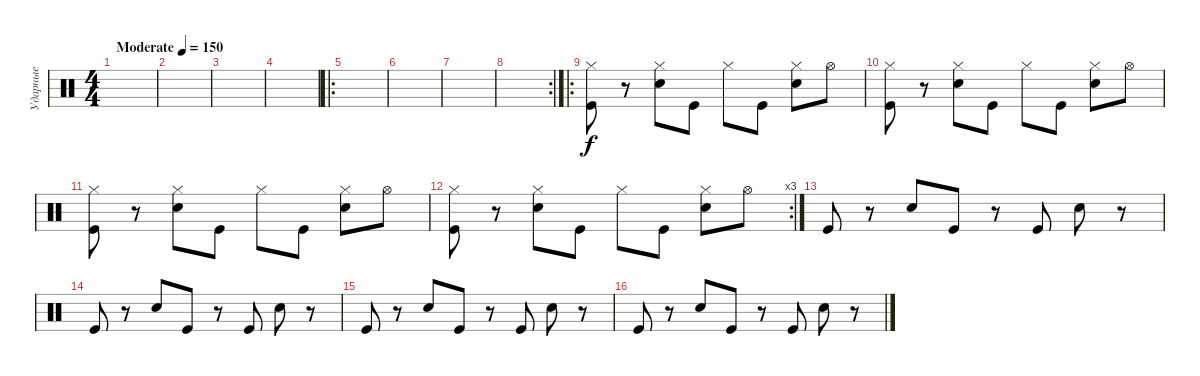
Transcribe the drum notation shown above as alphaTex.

\track ("Ударные" "Ударные") {instrument percussion}
\staff {score}
\articulation defaults
\ts (4 4)
\tempo (150 "Moderate")
\clef neutral
\ks c
|
|
|
|
\ro
|
|
|
\rc 2
|
\ro
("Kick (hit)" "Hi-Hat (closed)").8 r.8 ("Hand Clap (hit)" "Hi-Hat (closed)").8 "Kick (hit)".8 "Hi-Hat (closed)".8 "Kick (hit)".8 ("Hand Clap (hit)" "Hi-Hat (closed)").8 "Hi-Hat (open)".8 |
("Kick (hit)" "Hi-Hat (closed)").8 r.8 ("Hand Clap (hit)" "Hi-Hat (closed)").8 "Kick (hit)".8 "Hi-Hat (closed)".8 "Kick (hit)".8 ("Hand Clap (hit)" "Hi-Hat (closed)").8 "Hi-Hat (open)".8 |
("Kick (hit)" "Hi-Hat (closed)").8 r.8 ("Hand Clap (hit)" "Hi-Hat (closed)").8 "Kick (hit)".8 "Hi-Hat (closed)".8 "Kick (hit)".8 ("Hand Clap (hit)" "Hi-Hat (closed)").8 "Hi-Hat (open)".8 |
\rc 3
("Kick (hit)" "Hi-Hat (closed)").8 r.8 ("Hand Clap (hit)" "Hi-Hat (closed)").8 "Kick (hit)".8 "Hi-Hat (closed)".8 "Kick (hit)".8 ("Hand Clap (hit)" "Hi-Hat (closed)").8 "Hi-Hat (open)".8 |
"Kick (hit)".8 r.8 "Hand Clap (hit)".8 "Kick (hit)".8 r.8 "Kick (hit)".8 "Hand Clap (hit)".8 r.8 |
"Kick (hit)".8 r.8 "Hand Clap (hit)".8 "Kick (hit)".8 r.8 "Kick (hit)".8 "Hand Clap (hit)".8 r.8 |
"Kick (hit)".8 r.8 "Hand Clap (hit)".8 "Kick (hit)".8 r.8 "Kick (hit)".8 "Hand Clap (hit)".8 r.8 |
"Kick (hit)".8 r.8 "Hand Clap (hit)".8 "Kick (hit)".8 r.8 "Kick (hit)".8 "Hand Clap (hit)".8 r.8
